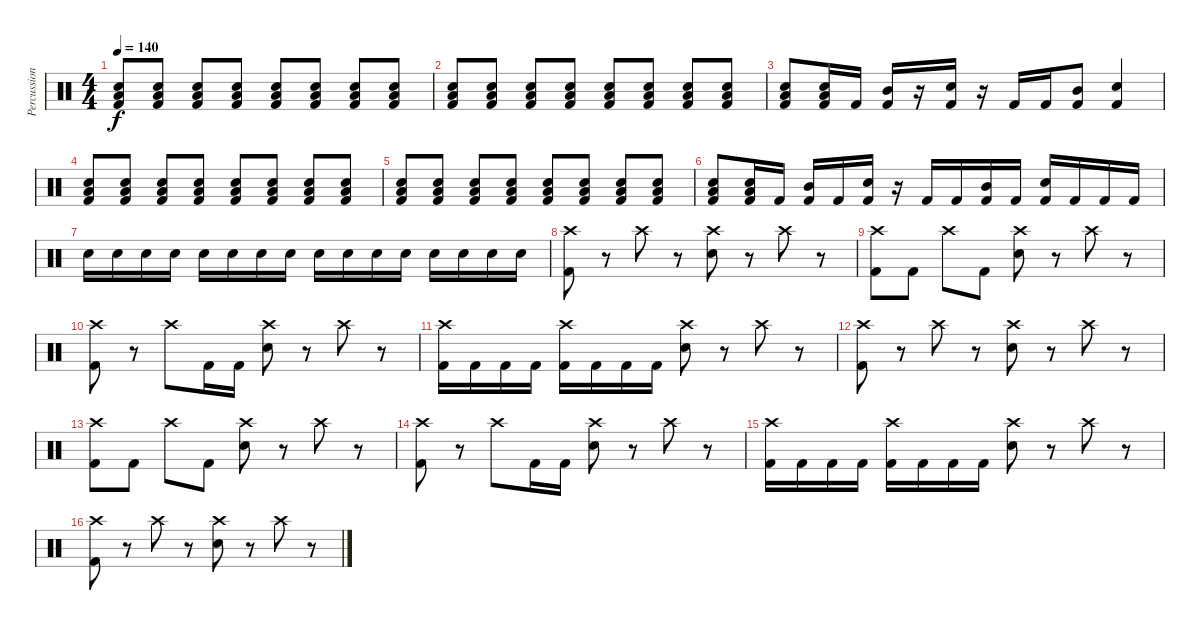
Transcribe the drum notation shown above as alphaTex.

\track ("Percussion" "Percussion") {instrument percussion}
\staff {score}
\articulation defaults
\ts (4 4)
\tempo 140
\clef neutral
\ks c
("Electric Snare (hit)" "Low Floor Tom (hit)" "Kick (hit) 2").8{dy f} ("Electric Snare (hit)" "Low Floor Tom (hit)" "Kick (hit) 2").8 ("Electric Snare (hit)" "Low Floor Tom (hit)" "Kick (hit) 2").8 ("Electric Snare (hit)" "Low Floor Tom (hit)" "Kick (hit) 2").8 ("Electric Snare (hit)" "Low Floor Tom (hit)" "Kick (hit) 2").8 ("Electric Snare (hit)" "Low Floor Tom (hit)" "Kick (hit) 2").8 ("Electric Snare (hit)" "Low Floor Tom (hit)" "Kick (hit) 2").8 ("Electric Snare (hit)" "Low Floor Tom (hit)" "Kick (hit) 2").8 |
("Electric Snare (hit)" "Low Floor Tom (hit)" "Kick (hit) 2").8 ("Electric Snare (hit)" "Low Floor Tom (hit)" "Kick (hit) 2").8 ("Electric Snare (hit)" "Low Floor Tom (hit)" "Kick (hit) 2").8 ("Electric Snare (hit)" "Low Floor Tom (hit)" "Kick (hit) 2").8 ("Electric Snare (hit)" "Low Floor Tom (hit)" "Kick (hit) 2").8 ("Electric Snare (hit)" "Low Floor Tom (hit)" "Kick (hit) 2").8 ("Electric Snare (hit)" "Low Floor Tom (hit)" "Kick (hit) 2").8 ("Electric Snare (hit)" "Low Floor Tom (hit)" "Kick (hit) 2").8 |
("Electric Snare (hit)" "Low Floor Tom (hit)" "Kick (hit) 2").8 ("Electric Snare (hit)" "Low Floor Tom (hit)" "Kick (hit) 2").16 "Kick (hit) 2".16 ("Mid Tom (hit)" "Kick (hit) 2").16 r.16 ("Electric Snare (hit)" "Kick (hit) 2").16 r.16 "Kick (hit) 2".16 "Kick (hit) 2".16 ("Mid Tom (hit)" "Kick (hit) 2").8 ("Electric Snare (hit)" "Kick (hit) 2").4 |
("Electric Snare (hit)" "Low Floor Tom (hit)" "Kick (hit) 2").8 ("Electric Snare (hit)" "Low Floor Tom (hit)" "Kick (hit) 2").8 ("Electric Snare (hit)" "Low Floor Tom (hit)" "Kick (hit) 2").8 ("Electric Snare (hit)" "Low Floor Tom (hit)" "Kick (hit) 2").8 ("Electric Snare (hit)" "Low Floor Tom (hit)" "Kick (hit) 2").8 ("Electric Snare (hit)" "Low Floor Tom (hit)" "Kick (hit) 2").8 ("Electric Snare (hit)" "Low Floor Tom (hit)" "Kick (hit) 2").8 ("Electric Snare (hit)" "Low Floor Tom (hit)" "Kick (hit) 2").8 |
("Electric Snare (hit)" "Low Floor Tom (hit)" "Kick (hit) 2").8 ("Electric Snare (hit)" "Low Floor Tom (hit)" "Kick (hit) 2").8 ("Electric Snare (hit)" "Low Floor Tom (hit)" "Kick (hit) 2").8 ("Electric Snare (hit)" "Low Floor Tom (hit)" "Kick (hit) 2").8 ("Electric Snare (hit)" "Low Floor Tom (hit)" "Kick (hit) 2").8 ("Electric Snare (hit)" "Low Floor Tom (hit)" "Kick (hit) 2").8 ("Electric Snare (hit)" "Low Floor Tom (hit)" "Kick (hit) 2").8 ("Electric Snare (hit)" "Low Floor Tom (hit)" "Kick (hit) 2").8 |
("Electric Snare (hit)" "Low Floor Tom (hit)" "Kick (hit) 2").8 ("Electric Snare (hit)" "Low Floor Tom (hit)" "Kick (hit) 2").16 "Kick (hit) 2".16 ("Mid Tom (hit)" "Kick (hit) 2").16 "Kick (hit) 2".16 ("Electric Snare (hit)" "Kick (hit) 2").16 r.16 "Kick (hit) 2".16 "Kick (hit) 2".16 ("Mid Tom (hit)" "Kick (hit) 2").16 "Kick (hit) 2".16 ("Electric Snare (hit)" "Kick (hit) 2").16 "Kick (hit) 2".16 "Kick (hit) 2".16 "Kick (hit) 2".16 |
"Electric Snare (hit)".16 "Electric Snare (hit)".16 "Electric Snare (hit)".16 "Electric Snare (hit)".16 "Electric Snare (hit)".16 "Electric Snare (hit)".16 "Electric Snare (hit)".16 "Electric Snare (hit)".16 "Electric Snare (hit)".16 "Electric Snare (hit)".16 "Electric Snare (hit)".16 "Electric Snare (hit)".16 "Electric Snare (hit)".16 "Electric Snare (hit)".16 "Electric Snare (hit)".16 "Electric Snare (hit)".16 |
("Crash high (hit)" "Kick (hit) 2").8 r.8 "Crash high (hit)".8 r.8 ("Crash high (hit)" "Electric Snare (hit)").8 r.8 "Crash high (hit)".8 r.8 |
("Crash high (hit)" "Kick (hit) 2").8 "Kick (hit) 2".8 "Crash high (hit)".8 "Kick (hit) 2".8 ("Crash high (hit)" "Electric Snare (hit)").8 r.8 "Crash high (hit)".8 r.8 |
("Crash high (hit)" "Kick (hit) 2").8 r.8 "Crash high (hit)".8 "Kick (hit) 2".16 "Kick (hit) 2".16 ("Crash high (hit)" "Electric Snare (hit)").8 r.8 "Crash high (hit)".8 r.8 |
("Crash high (hit)" "Kick (hit) 2").16 "Kick (hit) 2".16 "Kick (hit) 2".16 "Kick (hit) 2".16 ("Crash high (hit)" "Kick (hit) 2").16 "Kick (hit) 2".16 "Kick (hit) 2".16 "Kick (hit) 2".16 ("Crash high (hit)" "Electric Snare (hit)").8 r.8 "Crash high (hit)".8 r.8 |
("Crash high (hit)" "Kick (hit) 2").8 r.8 "Crash high (hit)".8 r.8 ("Crash high (hit)" "Electric Snare (hit)").8 r.8 "Crash high (hit)".8 r.8 |
("Crash high (hit)" "Kick (hit) 2").8 "Kick (hit) 2".8 "Crash high (hit)".8 "Kick (hit) 2".8 ("Crash high (hit)" "Electric Snare (hit)").8 r.8 "Crash high (hit)".8 r.8 |
("Crash high (hit)" "Kick (hit) 2").8 r.8 "Crash high (hit)".8 "Kick (hit) 2".16 "Kick (hit) 2".16 ("Crash high (hit)" "Electric Snare (hit)").8 r.8 "Crash high (hit)".8 r.8 |
("Crash high (hit)" "Kick (hit) 2").16 "Kick (hit) 2".16 "Kick (hit) 2".16 "Kick (hit) 2".16 ("Crash high (hit)" "Kick (hit) 2").16 "Kick (hit) 2".16 "Kick (hit) 2".16 "Kick (hit) 2".16 ("Crash high (hit)" "Electric Snare (hit)").8 r.8 "Crash high (hit)".8 r.8 |
("Crash high (hit)" "Kick (hit) 2").8 r.8 "Crash high (hit)".8 r.8 ("Crash high (hit)" "Electric Snare (hit)").8 r.8 "Crash high (hit)".8 r.8
